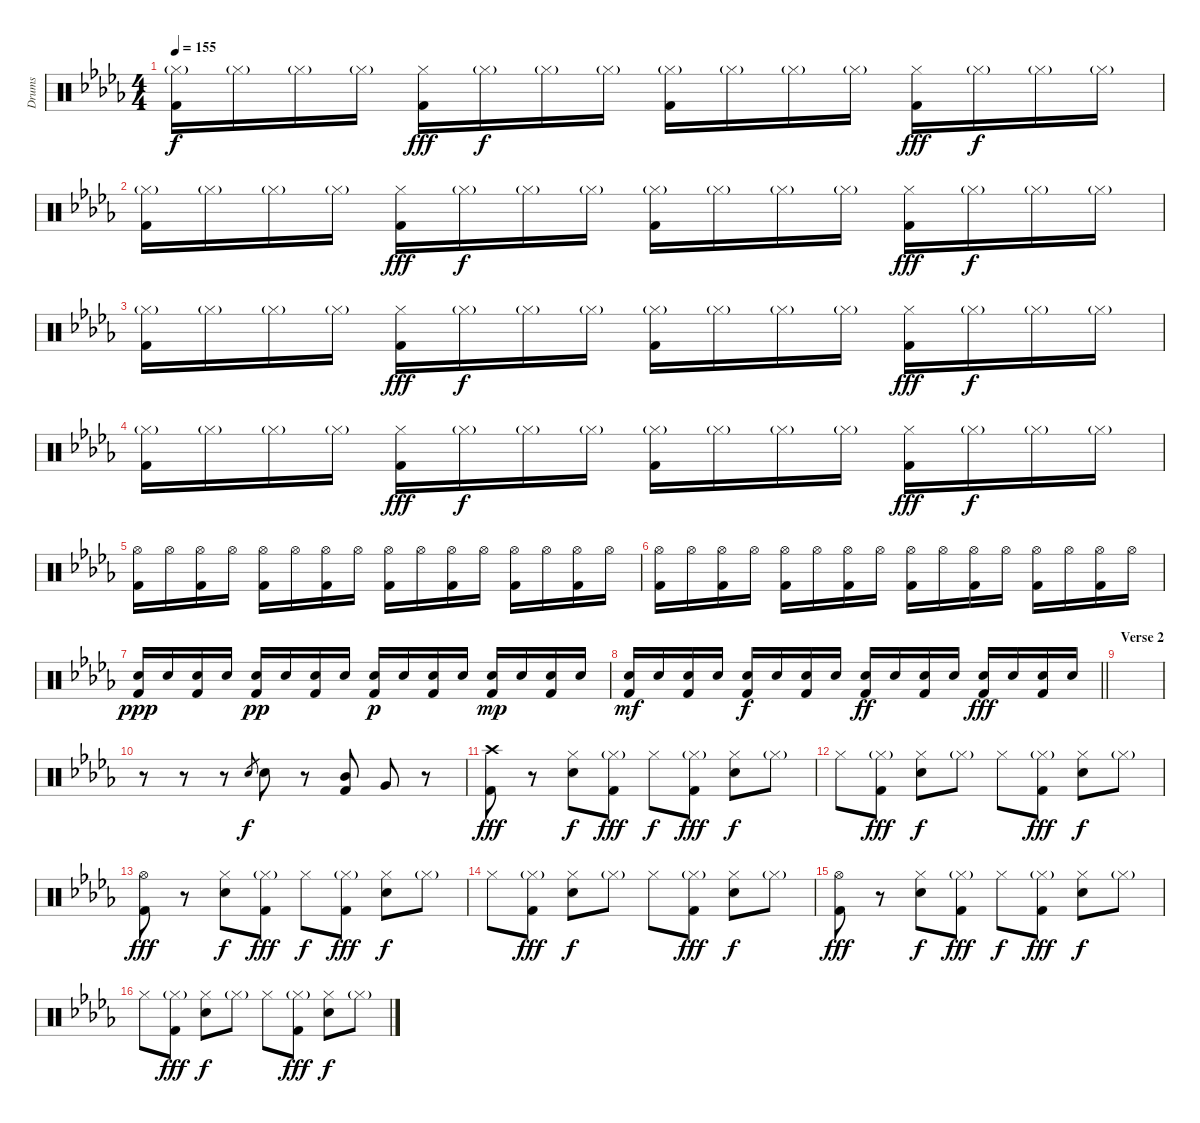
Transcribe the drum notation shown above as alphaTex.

\track ("Drums" "Drums") {instrument percussion}
\staff {score}
\articulation defaults
\ts (4 4)
\tempo 155
\clef neutral
\ks db
("Hi-Hat (closed)"{g} "Kick (hit) 2").16{dy f} "Hi-Hat (closed)"{g}.16 "Hi-Hat (closed)"{g}.16 "Hi-Hat (closed)"{g}.16 ("Hi-Hat (closed)" "Kick (hit) 2").16{dy fff} "Hi-Hat (closed)"{g}.16{dy f} "Hi-Hat (closed)"{g}.16 "Hi-Hat (closed)"{g}.16 ("Hi-Hat (closed)"{g} "Kick (hit) 2").16 "Hi-Hat (closed)"{g}.16 "Hi-Hat (closed)"{g}.16 "Hi-Hat (closed)"{g}.16 ("Hi-Hat (closed)" "Kick (hit) 2").16{dy fff} "Hi-Hat (closed)"{g}.16{dy f} "Hi-Hat (closed)"{g}.16 "Hi-Hat (closed)"{g}.16 |
("Hi-Hat (closed)"{g} "Kick (hit) 2").16 "Hi-Hat (closed)"{g}.16 "Hi-Hat (closed)"{g}.16 "Hi-Hat (closed)"{g}.16 ("Hi-Hat (closed)" "Kick (hit) 2").16{dy fff} "Hi-Hat (closed)"{g}.16{dy f} "Hi-Hat (closed)"{g}.16 "Hi-Hat (closed)"{g}.16 ("Hi-Hat (closed)"{g} "Kick (hit) 2").16 "Hi-Hat (closed)"{g}.16 "Hi-Hat (closed)"{g}.16 "Hi-Hat (closed)"{g}.16 ("Hi-Hat (closed)" "Kick (hit) 2").16{dy fff} "Hi-Hat (closed)"{g}.16{dy f} "Hi-Hat (closed)"{g}.16 "Hi-Hat (closed)"{g}.16 |
("Hi-Hat (closed)"{g} "Kick (hit) 2").16 "Hi-Hat (closed)"{g}.16 "Hi-Hat (closed)"{g}.16 "Hi-Hat (closed)"{g}.16 ("Hi-Hat (closed)" "Kick (hit) 2").16{dy fff} "Hi-Hat (closed)"{g}.16{dy f} "Hi-Hat (closed)"{g}.16 "Hi-Hat (closed)"{g}.16 ("Hi-Hat (closed)"{g} "Kick (hit) 2").16 "Hi-Hat (closed)"{g}.16 "Hi-Hat (closed)"{g}.16 "Hi-Hat (closed)"{g}.16 ("Hi-Hat (closed)" "Kick (hit) 2").16{dy fff} "Hi-Hat (closed)"{g}.16{dy f} "Hi-Hat (closed)"{g}.16 "Hi-Hat (closed)"{g}.16 |
("Hi-Hat (closed)"{g} "Kick (hit) 2").16 "Hi-Hat (closed)"{g}.16 "Hi-Hat (closed)"{g}.16 "Hi-Hat (closed)"{g}.16 ("Hi-Hat (closed)" "Kick (hit) 2").16{dy fff} "Hi-Hat (closed)"{g}.16{dy f} "Hi-Hat (closed)"{g}.16 "Hi-Hat (closed)"{g}.16 ("Hi-Hat (closed)"{g} "Kick (hit) 2").16 "Hi-Hat (closed)"{g}.16 "Hi-Hat (closed)"{g}.16 "Hi-Hat (closed)"{g}.16 ("Hi-Hat (closed)" "Kick (hit) 2").16{dy fff} "Hi-Hat (closed)"{g}.16{dy f} "Hi-Hat (closed)"{g}.16 "Hi-Hat (closed)"{g}.16 |
("Hi-Hat (open)" "Kick (hit) 2").16 "Hi-Hat (open)".16 ("Hi-Hat (open)" "Kick (hit) 2").16 "Hi-Hat (open)".16 ("Hi-Hat (open)" "Kick (hit) 2").16 "Hi-Hat (open)".16 ("Hi-Hat (open)" "Kick (hit) 2").16 "Hi-Hat (open)".16 ("Hi-Hat (open)" "Kick (hit) 2").16 "Hi-Hat (open)".16 ("Hi-Hat (open)" "Kick (hit) 2").16 "Hi-Hat (open)".16 ("Hi-Hat (open)" "Kick (hit) 2").16 "Hi-Hat (open)".16 ("Hi-Hat (open)" "Kick (hit) 2").16 "Hi-Hat (open)".16 |
("Hi-Hat (open)" "Kick (hit) 2").16 "Hi-Hat (open)".16 ("Hi-Hat (open)" "Kick (hit) 2").16 "Hi-Hat (open)".16 ("Hi-Hat (open)" "Kick (hit) 2").16 "Hi-Hat (open)".16 ("Hi-Hat (open)" "Kick (hit) 2").16 "Hi-Hat (open)".16 ("Hi-Hat (open)" "Kick (hit) 2").16 "Hi-Hat (open)".16 ("Hi-Hat (open)" "Kick (hit) 2").16 "Hi-Hat (open)".16 ("Hi-Hat (open)" "Kick (hit) 2").16 "Hi-Hat (open)".16 ("Hi-Hat (open)" "Kick (hit) 2").16 "Hi-Hat (open)".16 |
("Electric Snare (hit)" "Kick (hit) 2").16{dy ppp} "Electric Snare (hit)".16 ("Electric Snare (hit)" "Kick (hit) 2").16 "Electric Snare (hit)".16 ("Electric Snare (hit)" "Kick (hit) 2").16{dy pp} "Electric Snare (hit)".16 ("Electric Snare (hit)" "Kick (hit) 2").16 "Electric Snare (hit)".16 ("Electric Snare (hit)" "Kick (hit) 2").16{dy p} "Electric Snare (hit)".16 ("Electric Snare (hit)" "Kick (hit) 2").16 "Electric Snare (hit)".16 ("Electric Snare (hit)" "Kick (hit) 2").16{dy mp} "Electric Snare (hit)".16 ("Electric Snare (hit)" "Kick (hit) 2").16 "Electric Snare (hit)".16 |
\barLineRight lightlight
("Electric Snare (hit)" "Kick (hit) 2").16{dy mf} "Electric Snare (hit)".16 ("Electric Snare (hit)" "Kick (hit) 2").16 "Electric Snare (hit)".16 ("Electric Snare (hit)" "Kick (hit) 2").16{dy f} "Electric Snare (hit)".16 ("Electric Snare (hit)" "Kick (hit) 2").16 "Electric Snare (hit)".16 ("Electric Snare (hit)" "Kick (hit) 2").16{dy ff} "Electric Snare (hit)".16 ("Electric Snare (hit)" "Kick (hit) 2").16 "Electric Snare (hit)".16 ("Electric Snare (hit)" "Kick (hit) 2").16{dy fff} "Electric Snare (hit)".16 ("Electric Snare (hit)" "Kick (hit) 2").16 "Electric Snare (hit)".16 |
\section ("" "Verse 2")
|
r.8 r.8 r.8 "Electric Snare (hit)".8{gr dy f} "Electric Snare (hit)".8 r.8 ("Mid Tom (hit)" "Kick (hit) 2").8 "Very Low Tom (hit)".8 r.8 |
("Crash high (hit)" "Kick (hit) 2").8{dy fff} r.8 ("Hi-Hat (closed)" "Electric Snare (hit)").8{dy f} ("Hi-Hat (closed)"{g} "Kick (hit) 2").8{dy fff} "Hi-Hat (closed)".8{dy f} ("Hi-Hat (closed)"{g} "Kick (hit) 2").8{dy fff} ("Hi-Hat (closed)" "Electric Snare (hit)").8{dy f} "Hi-Hat (closed)"{g}.8 |
"Hi-Hat (closed)".8 ("Hi-Hat (closed)"{g} "Kick (hit) 2").8{dy fff} ("Hi-Hat (closed)" "Electric Snare (hit)").8{dy f} "Hi-Hat (closed)"{g}.8 "Hi-Hat (closed)".8 ("Hi-Hat (closed)"{g} "Kick (hit) 2").8{dy fff} ("Hi-Hat (closed)" "Electric Snare (hit)").8{dy f} "Hi-Hat (closed)"{g}.8 |
("Hi-Hat (open)" "Kick (hit) 2").8{dy fff} r.8 ("Hi-Hat (closed)" "Electric Snare (hit)").8{dy f} ("Hi-Hat (closed)"{g} "Kick (hit) 2").8{dy fff} "Hi-Hat (closed)".8{dy f} ("Hi-Hat (closed)"{g} "Kick (hit) 2").8{dy fff} ("Hi-Hat (closed)" "Electric Snare (hit)").8{dy f} "Hi-Hat (closed)"{g}.8 |
"Hi-Hat (closed)".8 ("Hi-Hat (closed)"{g} "Kick (hit) 2").8{dy fff} ("Hi-Hat (closed)" "Electric Snare (hit)").8{dy f} "Hi-Hat (closed)"{g}.8 "Hi-Hat (closed)".8 ("Hi-Hat (closed)"{g} "Kick (hit) 2").8{dy fff} ("Hi-Hat (closed)" "Electric Snare (hit)").8{dy f} "Hi-Hat (closed)"{g}.8 |
("Hi-Hat (open)" "Kick (hit) 2").8{dy fff} r.8 ("Hi-Hat (closed)" "Electric Snare (hit)").8{dy f} ("Hi-Hat (closed)"{g} "Kick (hit) 2").8{dy fff} "Hi-Hat (closed)".8{dy f} ("Hi-Hat (closed)"{g} "Kick (hit) 2").8{dy fff} ("Hi-Hat (closed)" "Electric Snare (hit)").8{dy f} "Hi-Hat (closed)"{g}.8 |
"Hi-Hat (closed)".8 ("Hi-Hat (closed)"{g} "Kick (hit) 2").8{dy fff} ("Hi-Hat (closed)" "Electric Snare (hit)").8{dy f} "Hi-Hat (closed)"{g}.8 "Hi-Hat (closed)".8 ("Hi-Hat (closed)"{g} "Kick (hit) 2").8{dy fff} ("Hi-Hat (closed)" "Electric Snare (hit)").8{dy f} "Hi-Hat (closed)"{g}.8
